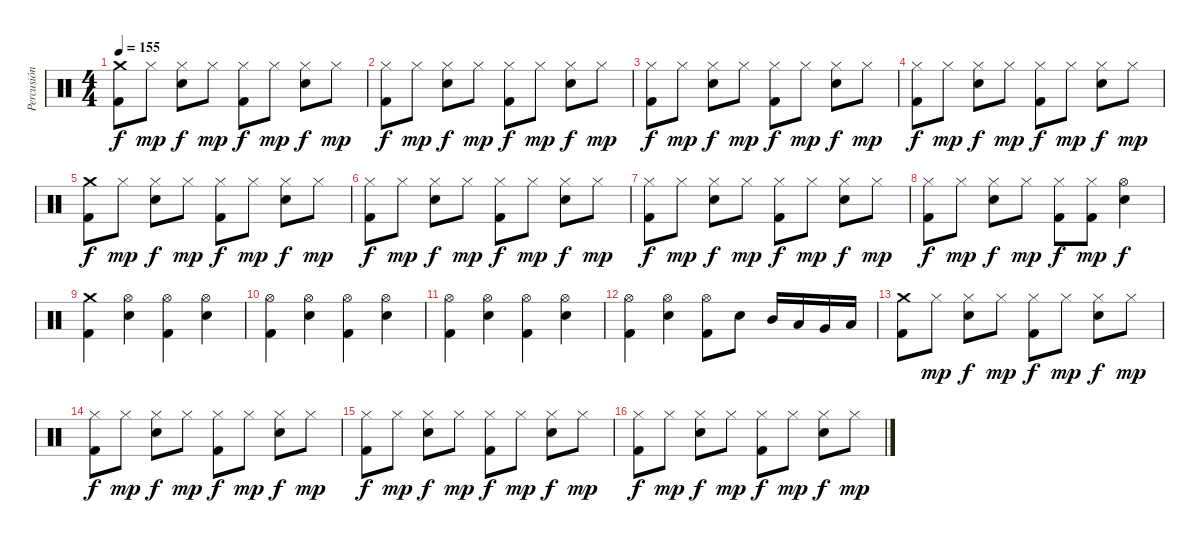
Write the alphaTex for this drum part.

\track ("Percusión" "Percusión") {instrument percussion}
\staff {score}
\articulation defaults
\ts (4 4)
\tempo 155
\clef neutral
\ks c
("Crash medium (hit)" "Kick (hit) 2").8{dy f} "Hi-Hat (closed)".8{dy mp} ("Hi-Hat (closed)" "Electric Snare (hit)").8{dy f} "Hi-Hat (closed)".8{dy mp} ("Hi-Hat (closed)" "Kick (hit) 2").8{dy f} "Hi-Hat (closed)".8{dy mp} ("Hi-Hat (closed)" "Electric Snare (hit)").8{dy f} "Hi-Hat (closed)".8{dy mp} |
("Hi-Hat (closed)" "Kick (hit) 2").8{dy f} "Hi-Hat (closed)".8{dy mp} ("Hi-Hat (closed)" "Electric Snare (hit)").8{dy f} "Hi-Hat (closed)".8{dy mp} ("Hi-Hat (closed)" "Kick (hit) 2").8{dy f} "Hi-Hat (closed)".8{dy mp} ("Hi-Hat (closed)" "Electric Snare (hit)").8{dy f} "Hi-Hat (closed)".8{dy mp} |
("Hi-Hat (closed)" "Kick (hit) 2").8{dy f} "Hi-Hat (closed)".8{dy mp} ("Hi-Hat (closed)" "Electric Snare (hit)").8{dy f} "Hi-Hat (closed)".8{dy mp} ("Hi-Hat (closed)" "Kick (hit) 2").8{dy f} "Hi-Hat (closed)".8{dy mp} ("Hi-Hat (closed)" "Electric Snare (hit)").8{dy f} "Hi-Hat (closed)".8{dy mp} |
("Hi-Hat (closed)" "Kick (hit) 2").8{dy f} "Hi-Hat (closed)".8{dy mp} ("Hi-Hat (closed)" "Electric Snare (hit)").8{dy f} "Hi-Hat (closed)".8{dy mp} ("Hi-Hat (closed)" "Kick (hit) 2").8{dy f} "Hi-Hat (closed)".8{dy mp} ("Hi-Hat (closed)" "Electric Snare (hit)").8{dy f} "Hi-Hat (closed)".8{dy mp} |
("Crash medium (hit)" "Kick (hit) 2").8{dy f} "Hi-Hat (closed)".8{dy mp} ("Hi-Hat (closed)" "Electric Snare (hit)").8{dy f} "Hi-Hat (closed)".8{dy mp} ("Hi-Hat (closed)" "Kick (hit) 2").8{dy f} "Hi-Hat (closed)".8{dy mp} ("Hi-Hat (closed)" "Electric Snare (hit)").8{dy f} "Hi-Hat (closed)".8{dy mp} |
("Hi-Hat (closed)" "Kick (hit) 2").8{dy f} "Hi-Hat (closed)".8{dy mp} ("Hi-Hat (closed)" "Electric Snare (hit)").8{dy f} "Hi-Hat (closed)".8{dy mp} ("Hi-Hat (closed)" "Kick (hit) 2").8{dy f} "Hi-Hat (closed)".8{dy mp} ("Hi-Hat (closed)" "Electric Snare (hit)").8{dy f} "Hi-Hat (closed)".8{dy mp} |
("Hi-Hat (closed)" "Kick (hit) 2").8{dy f} "Hi-Hat (closed)".8{dy mp} ("Hi-Hat (closed)" "Electric Snare (hit)").8{dy f} "Hi-Hat (closed)".8{dy mp} ("Hi-Hat (closed)" "Kick (hit) 2").8{dy f} "Hi-Hat (closed)".8{dy mp} ("Hi-Hat (closed)" "Electric Snare (hit)").8{dy f} "Hi-Hat (closed)".8{dy mp} |
("Hi-Hat (closed)" "Kick (hit) 2").8{dy f} "Hi-Hat (closed)".8{dy mp} ("Hi-Hat (closed)" "Electric Snare (hit)").8{dy f} "Hi-Hat (closed)".8{dy mp} ("Hi-Hat (closed)" "Kick (hit) 2").8{dy f} ("Hi-Hat (closed)" "Kick (hit) 2").8{dy mp} ("Hi-Hat (open)" "Electric Snare (hit)").4{dy f} |
("Crash medium (hit)" "Kick (hit) 2").4 ("Hi-Hat (open)" "Electric Snare (hit)").4 ("Hi-Hat (open)" "Kick (hit) 2").4 ("Hi-Hat (open)" "Electric Snare (hit)").4 |
("Hi-Hat (open)" "Kick (hit) 2").4 ("Hi-Hat (open)" "Electric Snare (hit)").4 ("Hi-Hat (open)" "Kick (hit) 2").4 ("Hi-Hat (open)" "Electric Snare (hit)").4 |
("Hi-Hat (open)" "Kick (hit) 2").4 ("Hi-Hat (open)" "Electric Snare (hit)").4 ("Hi-Hat (open)" "Kick (hit) 2").4 ("Hi-Hat (open)" "Electric Snare (hit)").4 |
("Hi-Hat (open)" "Kick (hit) 2").4 ("Hi-Hat (open)" "Electric Snare (hit)").4 ("Hi-Hat (open)" "Kick (hit) 2").8 "Electric Snare (hit)".8 "Mid Tom (hit)".16 "Low Tom (hit)".16 "Very Low Tom (hit)".16 "Low Floor Tom (hit)".16 |
("Crash medium (hit)" "Kick (hit) 2").8 "Hi-Hat (closed)".8{dy mp} ("Hi-Hat (closed)" "Electric Snare (hit)").8{dy f} "Hi-Hat (closed)".8{dy mp} ("Hi-Hat (closed)" "Kick (hit) 2").8{dy f} "Hi-Hat (closed)".8{dy mp} ("Hi-Hat (closed)" "Electric Snare (hit)").8{dy f} "Hi-Hat (closed)".8{dy mp} |
("Hi-Hat (closed)" "Kick (hit) 2").8{dy f} "Hi-Hat (closed)".8{dy mp} ("Hi-Hat (closed)" "Electric Snare (hit)").8{dy f} "Hi-Hat (closed)".8{dy mp} ("Hi-Hat (closed)" "Kick (hit) 2").8{dy f} "Hi-Hat (closed)".8{dy mp} ("Hi-Hat (closed)" "Electric Snare (hit)").8{dy f} "Hi-Hat (closed)".8{dy mp} |
("Hi-Hat (closed)" "Kick (hit) 2").8{dy f} "Hi-Hat (closed)".8{dy mp} ("Hi-Hat (closed)" "Electric Snare (hit)").8{dy f} "Hi-Hat (closed)".8{dy mp} ("Hi-Hat (closed)" "Kick (hit) 2").8{dy f} "Hi-Hat (closed)".8{dy mp} ("Hi-Hat (closed)" "Electric Snare (hit)").8{dy f} "Hi-Hat (closed)".8{dy mp} |
("Hi-Hat (closed)" "Kick (hit) 2").8{dy f} "Hi-Hat (closed)".8{dy mp} ("Hi-Hat (closed)" "Electric Snare (hit)").8{dy f} "Hi-Hat (closed)".8{dy mp} ("Hi-Hat (closed)" "Kick (hit) 2").8{dy f} "Hi-Hat (closed)".8{dy mp} ("Hi-Hat (closed)" "Electric Snare (hit)").8{dy f} "Hi-Hat (closed)".8{dy mp}
